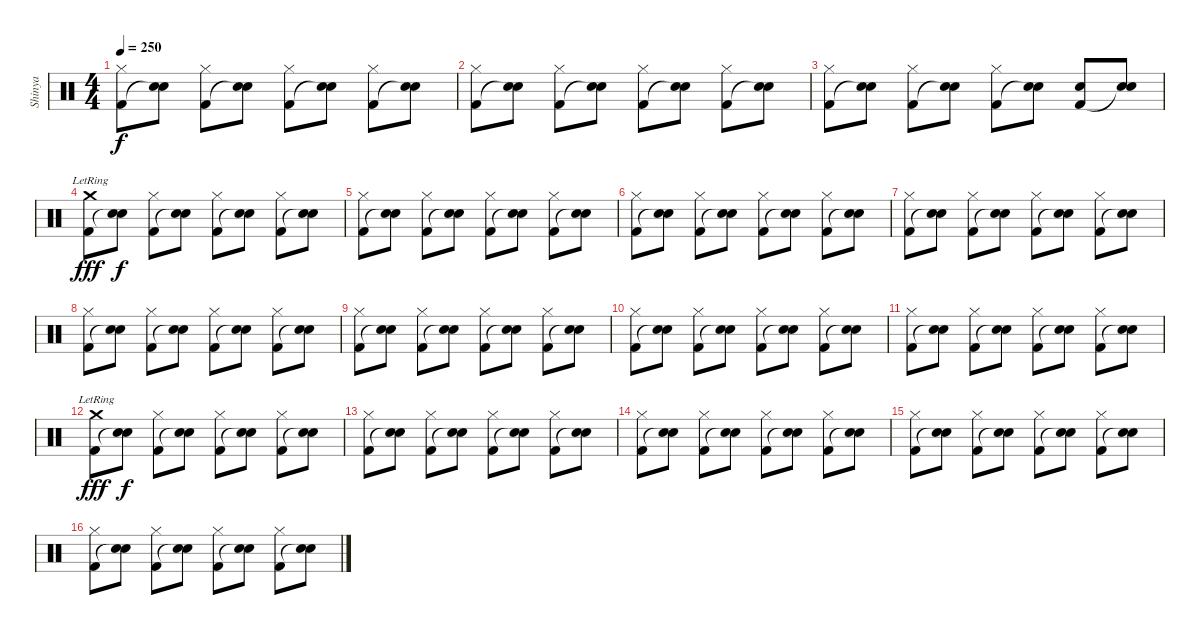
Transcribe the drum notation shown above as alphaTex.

\track ("Shinya" "Shinya") {instrument percussion}
\staff {score}
\articulation defaults
\ts (4 4)
\tempo 250
\clef neutral
\ks c
("Hi-Hat (closed)" "Kick (hit) 2").8{dy f} ("Electric Snare (hit)" "Snare (hit)"{t}).8 ("Hi-Hat (closed)" "Kick (hit) 2").8 ("Electric Snare (hit)" "Snare (hit)"{t}).8 ("Hi-Hat (closed)" "Kick (hit) 2").8 ("Electric Snare (hit)" "Snare (hit)"{t}).8 ("Hi-Hat (closed)" "Kick (hit) 2").8 ("Electric Snare (hit)" "Snare (hit)"{t}).8 |
("Hi-Hat (closed)" "Kick (hit) 2").8 ("Electric Snare (hit)" "Snare (hit)"{t}).8 ("Hi-Hat (closed)" "Kick (hit) 2").8 ("Electric Snare (hit)" "Snare (hit)"{t}).8 ("Hi-Hat (closed)" "Kick (hit) 2").8 ("Electric Snare (hit)" "Snare (hit)"{t}).8 ("Hi-Hat (closed)" "Kick (hit) 2").8 ("Electric Snare (hit)" "Snare (hit)"{t}).8 |
("Hi-Hat (closed)" "Kick (hit) 2").8 ("Electric Snare (hit)" "Snare (hit)"{t}).8 ("Hi-Hat (closed)" "Kick (hit) 2").8 ("Electric Snare (hit)" "Snare (hit)"{t}).8 ("Hi-Hat (closed)" "Kick (hit) 2").8 ("Electric Snare (hit)" "Snare (hit)"{t}).8 ("Electric Snare (hit)" "Kick (hit) 2").8 ("Electric Snare (hit)" "Snare (hit)"{t}).8 |
("Crash medium (hit)"{lr} "Kick (hit) 2").8{dy fff} ("Electric Snare (hit)" "Snare (hit)"{t}).8{dy f} ("Hi-Hat (closed)" "Kick (hit) 2").8 ("Electric Snare (hit)" "Snare (hit)"{t}).8 ("Hi-Hat (closed)" "Kick (hit) 2").8 ("Electric Snare (hit)" "Snare (hit)"{t}).8 ("Hi-Hat (closed)" "Kick (hit) 2").8 ("Electric Snare (hit)" "Snare (hit)"{t}).8 |
("Hi-Hat (closed)" "Kick (hit) 2").8 ("Electric Snare (hit)" "Snare (hit)"{t}).8 ("Hi-Hat (closed)" "Kick (hit) 2").8 ("Electric Snare (hit)" "Snare (hit)"{t}).8 ("Hi-Hat (closed)" "Kick (hit) 2").8 ("Electric Snare (hit)" "Snare (hit)"{t}).8 ("Hi-Hat (closed)" "Kick (hit) 2").8 ("Electric Snare (hit)" "Snare (hit)"{t}).8 |
("Hi-Hat (closed)" "Kick (hit) 2").8 ("Electric Snare (hit)" "Snare (hit)"{t}).8 ("Hi-Hat (closed)" "Kick (hit) 2").8 ("Electric Snare (hit)" "Snare (hit)"{t}).8 ("Hi-Hat (closed)" "Kick (hit) 2").8 ("Electric Snare (hit)" "Snare (hit)"{t}).8 ("Hi-Hat (closed)" "Kick (hit) 2").8 ("Electric Snare (hit)" "Snare (hit)"{t}).8 |
("Hi-Hat (closed)" "Kick (hit) 2").8 ("Electric Snare (hit)" "Snare (hit)"{t}).8 ("Hi-Hat (closed)" "Kick (hit) 2").8 ("Electric Snare (hit)" "Snare (hit)"{t}).8 ("Hi-Hat (closed)" "Kick (hit) 2").8 ("Electric Snare (hit)" "Snare (hit)"{t}).8 ("Hi-Hat (closed)" "Kick (hit) 2").8 ("Electric Snare (hit)" "Snare (hit)"{t}).8 |
("Hi-Hat (closed)" "Kick (hit) 2").8 ("Electric Snare (hit)" "Snare (hit)"{t}).8 ("Hi-Hat (closed)" "Kick (hit) 2").8 ("Electric Snare (hit)" "Snare (hit)"{t}).8 ("Hi-Hat (closed)" "Kick (hit) 2").8 ("Electric Snare (hit)" "Snare (hit)"{t}).8 ("Hi-Hat (closed)" "Kick (hit) 2").8 ("Electric Snare (hit)" "Snare (hit)"{t}).8 |
("Hi-Hat (closed)" "Kick (hit) 2").8 ("Electric Snare (hit)" "Snare (hit)"{t}).8 ("Hi-Hat (closed)" "Kick (hit) 2").8 ("Electric Snare (hit)" "Snare (hit)"{t}).8 ("Hi-Hat (closed)" "Kick (hit) 2").8 ("Electric Snare (hit)" "Snare (hit)"{t}).8 ("Hi-Hat (closed)" "Kick (hit) 2").8 ("Electric Snare (hit)" "Snare (hit)"{t}).8 |
("Hi-Hat (closed)" "Kick (hit) 2").8 ("Electric Snare (hit)" "Snare (hit)"{t}).8 ("Hi-Hat (closed)" "Kick (hit) 2").8 ("Electric Snare (hit)" "Snare (hit)"{t}).8 ("Hi-Hat (closed)" "Kick (hit) 2").8 ("Electric Snare (hit)" "Snare (hit)"{t}).8 ("Hi-Hat (closed)" "Kick (hit) 2").8 ("Electric Snare (hit)" "Snare (hit)"{t}).8 |
("Hi-Hat (closed)" "Kick (hit) 2").8 ("Electric Snare (hit)" "Snare (hit)"{t}).8 ("Hi-Hat (closed)" "Kick (hit) 2").8 ("Electric Snare (hit)" "Snare (hit)"{t}).8 ("Hi-Hat (closed)" "Kick (hit) 2").8 ("Electric Snare (hit)" "Snare (hit)"{t}).8 ("Hi-Hat (closed)" "Kick (hit) 2").8 ("Electric Snare (hit)" "Snare (hit)"{t}).8 |
("Crash medium (hit)"{lr} "Kick (hit) 2").8{dy fff} ("Electric Snare (hit)" "Snare (hit)"{t}).8{dy f} ("Hi-Hat (closed)" "Kick (hit) 2").8 ("Electric Snare (hit)" "Snare (hit)"{t}).8 ("Hi-Hat (closed)" "Kick (hit) 2").8 ("Electric Snare (hit)" "Snare (hit)"{t}).8 ("Hi-Hat (closed)" "Kick (hit) 2").8 ("Electric Snare (hit)" "Snare (hit)"{t}).8 |
("Hi-Hat (closed)" "Kick (hit) 2").8 ("Electric Snare (hit)" "Snare (hit)"{t}).8 ("Hi-Hat (closed)" "Kick (hit) 2").8 ("Electric Snare (hit)" "Snare (hit)"{t}).8 ("Hi-Hat (closed)" "Kick (hit) 2").8 ("Electric Snare (hit)" "Snare (hit)"{t}).8 ("Hi-Hat (closed)" "Kick (hit) 2").8 ("Electric Snare (hit)" "Snare (hit)"{t}).8 |
("Hi-Hat (closed)" "Kick (hit) 2").8 ("Electric Snare (hit)" "Snare (hit)"{t}).8 ("Hi-Hat (closed)" "Kick (hit) 2").8 ("Electric Snare (hit)" "Snare (hit)"{t}).8 ("Hi-Hat (closed)" "Kick (hit) 2").8 ("Electric Snare (hit)" "Snare (hit)"{t}).8 ("Hi-Hat (closed)" "Kick (hit) 2").8 ("Electric Snare (hit)" "Snare (hit)"{t}).8 |
("Hi-Hat (closed)" "Kick (hit) 2").8 ("Electric Snare (hit)" "Snare (hit)"{t}).8 ("Hi-Hat (closed)" "Kick (hit) 2").8 ("Electric Snare (hit)" "Snare (hit)"{t}).8 ("Hi-Hat (closed)" "Kick (hit) 2").8 ("Electric Snare (hit)" "Snare (hit)"{t}).8 ("Hi-Hat (closed)" "Kick (hit) 2").8 ("Electric Snare (hit)" "Snare (hit)"{t}).8 |
("Hi-Hat (closed)" "Kick (hit) 2").8 ("Electric Snare (hit)" "Snare (hit)"{t}).8 ("Hi-Hat (closed)" "Kick (hit) 2").8 ("Electric Snare (hit)" "Snare (hit)"{t}).8 ("Hi-Hat (closed)" "Kick (hit) 2").8 ("Electric Snare (hit)" "Snare (hit)"{t}).8 ("Hi-Hat (closed)" "Kick (hit) 2").8 ("Electric Snare (hit)" "Snare (hit)"{t}).8
